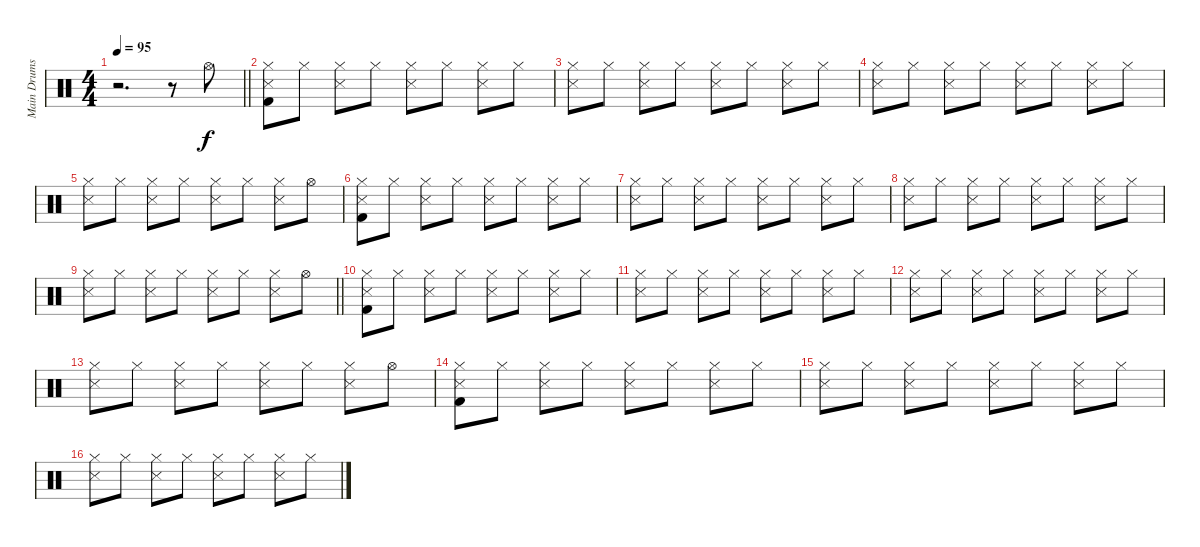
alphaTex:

\track ("Main Drums" "Main Drums") {instrument percussion}
\staff {score}
\articulation defaults
\ts (4 4)
\tempo 95
\clef neutral
\barLineRight lightlight
\ks c
r.2{d dy f} r.8 "Hi-Hat (open)".8 |
("Hi-Hat (closed)" "Snare (side stick) 3" "Kick (hit) 2").8 "Hi-Hat (closed)".8 ("Hi-Hat (closed)" "Snare (side stick) 3").8 "Hi-Hat (closed)".8 ("Hi-Hat (closed)" "Snare (side stick) 3").8 "Hi-Hat (closed)".8 ("Hi-Hat (closed)" "Snare (side stick) 3").8 "Hi-Hat (closed)".8 |
("Hi-Hat (closed)" "Snare (side stick) 3").8 "Hi-Hat (closed)".8 ("Hi-Hat (closed)" "Snare (side stick) 3").8 "Hi-Hat (closed)".8 ("Hi-Hat (closed)" "Snare (side stick) 3").8 "Hi-Hat (closed)".8 ("Hi-Hat (closed)" "Snare (side stick) 3").8 "Hi-Hat (closed)".8 |
("Hi-Hat (closed)" "Snare (side stick) 3").8 "Hi-Hat (closed)".8 ("Hi-Hat (closed)" "Snare (side stick) 3").8 "Hi-Hat (closed)".8 ("Hi-Hat (closed)" "Snare (side stick) 3").8 "Hi-Hat (closed)".8 ("Hi-Hat (closed)" "Snare (side stick) 3").8 "Hi-Hat (closed)".8 |
("Hi-Hat (closed)" "Snare (side stick) 3").8 "Hi-Hat (closed)".8 ("Hi-Hat (closed)" "Snare (side stick) 3").8 "Hi-Hat (closed)".8 ("Hi-Hat (closed)" "Snare (side stick) 3").8 "Hi-Hat (closed)".8 ("Hi-Hat (closed)" "Snare (side stick) 3").8 "Hi-Hat (open)".8 |
("Hi-Hat (closed)" "Snare (side stick) 3" "Kick (hit) 2").8 "Hi-Hat (closed)".8 ("Hi-Hat (closed)" "Snare (side stick) 3").8 "Hi-Hat (closed)".8 ("Hi-Hat (closed)" "Snare (side stick) 3").8 "Hi-Hat (closed)".8 ("Hi-Hat (closed)" "Snare (side stick) 3").8 "Hi-Hat (closed)".8 |
("Hi-Hat (closed)" "Snare (side stick) 3").8 "Hi-Hat (closed)".8 ("Hi-Hat (closed)" "Snare (side stick) 3").8 "Hi-Hat (closed)".8 ("Hi-Hat (closed)" "Snare (side stick) 3").8 "Hi-Hat (closed)".8 ("Hi-Hat (closed)" "Snare (side stick) 3").8 "Hi-Hat (closed)".8 |
("Hi-Hat (closed)" "Snare (side stick) 3").8 "Hi-Hat (closed)".8 ("Hi-Hat (closed)" "Snare (side stick) 3").8 "Hi-Hat (closed)".8 ("Hi-Hat (closed)" "Snare (side stick) 3").8 "Hi-Hat (closed)".8 ("Hi-Hat (closed)" "Snare (side stick) 3").8 "Hi-Hat (closed)".8 |
\barLineRight lightlight
("Hi-Hat (closed)" "Snare (side stick) 3").8 "Hi-Hat (closed)".8 ("Hi-Hat (closed)" "Snare (side stick) 3").8 "Hi-Hat (closed)".8 ("Hi-Hat (closed)" "Snare (side stick) 3").8 "Hi-Hat (closed)".8 ("Hi-Hat (closed)" "Snare (side stick) 3").8 "Hi-Hat (open)".8 |
("Hi-Hat (closed)" "Snare (side stick) 3" "Kick (hit) 2").8 "Hi-Hat (closed)".8 ("Hi-Hat (closed)" "Snare (side stick) 3").8 "Hi-Hat (closed)".8 ("Hi-Hat (closed)" "Snare (side stick) 3").8 "Hi-Hat (closed)".8 ("Hi-Hat (closed)" "Snare (side stick) 3").8 "Hi-Hat (closed)".8 |
("Hi-Hat (closed)" "Snare (side stick) 3").8 "Hi-Hat (closed)".8 ("Hi-Hat (closed)" "Snare (side stick) 3").8 "Hi-Hat (closed)".8 ("Hi-Hat (closed)" "Snare (side stick) 3").8 "Hi-Hat (closed)".8 ("Hi-Hat (closed)" "Snare (side stick) 3").8 "Hi-Hat (closed)".8 |
("Hi-Hat (closed)" "Snare (side stick) 3").8 "Hi-Hat (closed)".8 ("Hi-Hat (closed)" "Snare (side stick) 3").8 "Hi-Hat (closed)".8 ("Hi-Hat (closed)" "Snare (side stick) 3").8 "Hi-Hat (closed)".8 ("Hi-Hat (closed)" "Snare (side stick) 3").8 "Hi-Hat (closed)".8 |
("Hi-Hat (closed)" "Snare (side stick) 3").8 "Hi-Hat (closed)".8 ("Hi-Hat (closed)" "Snare (side stick) 3").8 "Hi-Hat (closed)".8 ("Hi-Hat (closed)" "Snare (side stick) 3").8 "Hi-Hat (closed)".8 ("Hi-Hat (closed)" "Snare (side stick) 3").8 "Hi-Hat (open)".8 |
("Hi-Hat (closed)" "Snare (side stick) 3" "Kick (hit) 2").8 "Hi-Hat (closed)".8 ("Hi-Hat (closed)" "Snare (side stick) 3").8 "Hi-Hat (closed)".8 ("Hi-Hat (closed)" "Snare (side stick) 3").8 "Hi-Hat (closed)".8 ("Hi-Hat (closed)" "Snare (side stick) 3").8 "Hi-Hat (closed)".8 |
("Hi-Hat (closed)" "Snare (side stick) 3").8 "Hi-Hat (closed)".8 ("Hi-Hat (closed)" "Snare (side stick) 3").8 "Hi-Hat (closed)".8 ("Hi-Hat (closed)" "Snare (side stick) 3").8 "Hi-Hat (closed)".8 ("Hi-Hat (closed)" "Snare (side stick) 3").8 "Hi-Hat (closed)".8 |
("Hi-Hat (closed)" "Snare (side stick) 3").8 "Hi-Hat (closed)".8 ("Hi-Hat (closed)" "Snare (side stick) 3").8 "Hi-Hat (closed)".8 ("Hi-Hat (closed)" "Snare (side stick) 3").8 "Hi-Hat (closed)".8 ("Hi-Hat (closed)" "Snare (side stick) 3").8 "Hi-Hat (closed)".8
